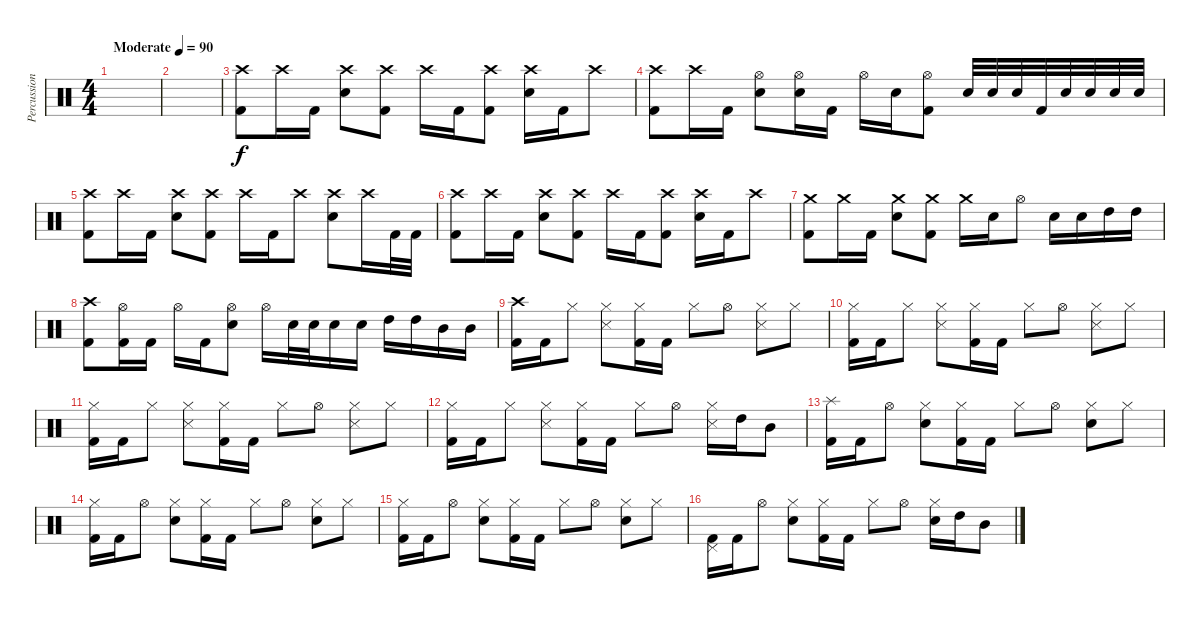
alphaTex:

\track ("Percussion" "Percussion") {instrument percussion}
\staff {score}
\articulation defaults
\ts (4 4)
\tempo (90 "Moderate")
\clef neutral
\ks c
|
|
("Crash high (hit)" "Kick (hit) 2").8 "Crash high (hit)".16 "Kick (hit) 2".16 ("Crash high (hit)" "Snare (hit) 2").8 ("Crash high (hit)" "Kick (hit) 2").8 "Crash high (hit)".16 "Kick (hit) 2".16 ("Crash high (hit)" "Kick (hit) 2").8 ("Crash high (hit)" "Snare (hit) 2").16 "Kick (hit) 2".16 "Crash high (hit)".8 |
("Crash high (hit)" "Kick (hit) 2").8 "Crash high (hit)".16 "Kick (hit) 2".16 ("Hi-Hat (open)" "Snare (hit) 2").8 ("Hi-Hat (open)" "Snare (hit) 2").16 "Kick (hit) 2".16 "Hi-Hat (open)".16 "Snare (hit) 2".16 ("Hi-Hat (open)" "Kick (hit) 2").8 "Snare (hit) 2".32 "Snare (hit) 2".32 "Snare (hit) 2".32 "Kick (hit) 2".32 "Snare (hit) 2".32 "Snare (hit) 2".32 "Snare (hit) 2".32 "Snare (hit) 2".32 |
("Crash high (hit)" "Kick (hit) 2").8 "Crash high (hit)".16 "Kick (hit) 2".16 ("Crash high (hit)" "Snare (hit) 2").8 ("Crash high (hit)" "Kick (hit) 2").8 "Crash high (hit)".16 "Kick (hit) 2".16 "Crash high (hit)".8 ("Crash high (hit)" "Snare (hit) 2").8 "Crash high (hit)".16 "Kick (hit) 2".32 "Kick (hit) 2".32 |
("Crash high (hit)" "Kick (hit) 2").8 "Crash high (hit)".16 "Kick (hit) 2".16 ("Crash high (hit)" "Snare (hit) 2").8 ("Crash high (hit)" "Kick (hit) 2").8 "Crash high (hit)".16 "Kick (hit) 2".16 ("Crash high (hit)" "Kick (hit) 2").8 ("Crash high (hit)" "Snare (hit) 2").16 "Kick (hit) 2".16 "Crash high (hit)".8 |
("Crash medium (hit)" "Kick (hit) 2").8 "Crash medium (hit)".16 "Kick (hit) 2".16 ("Crash medium (hit)" "Snare (hit) 2").8 ("Crash medium (hit)" "Kick (hit) 2").8 "Crash medium (hit)".16 "Snare (hit) 2".16 "Hi-Hat (open)".8 "Snare (hit) 2".16 "Snare (hit) 2".16 "High Tom (hit)".16 "High Tom (hit)".16 |
("Crash high (hit)" "Kick (hit) 2").8 ("Hi-Hat (open)" "Kick (hit) 2").16 "Kick (hit) 2".16 "Hi-Hat (open)".16 "Kick (hit) 2".16 ("Hi-Hat (open)" "Snare (hit) 2").8 "Hi-Hat (open)".16 "Snare (hit) 2".32 "Snare (hit) 2".32 "Snare (hit) 2".16 "Snare (hit) 2".16 "High Tom (hit)".16 "High Tom (hit)".16 "Mid Tom (hit)".16 "Mid Tom (hit)".16 |
("Crash high (hit)" "Kick (hit) 2").16 "Kick (hit) 2".16 "Hi-Hat (closed)".8 ("Hi-Hat (closed)" "Snare (side stick) 3").8 ("Hi-Hat (closed)" "Kick (hit) 2").16 "Kick (hit) 2".16 "Hi-Hat (closed)".8 "Hi-Hat (open)".8 ("Hi-Hat (closed)" "Snare (side stick) 3").8 "Hi-Hat (closed)".8 |
("Hi-Hat (closed)" "Kick (hit) 2").16 "Kick (hit) 2".16 "Hi-Hat (closed)".8 ("Hi-Hat (closed)" "Snare (side stick) 3").8 ("Hi-Hat (closed)" "Kick (hit) 2").16 "Kick (hit) 2".16 "Hi-Hat (closed)".8 "Hi-Hat (open)".8 ("Hi-Hat (closed)" "Snare (side stick) 3").8 "Hi-Hat (closed)".8 |
("Hi-Hat (closed)" "Kick (hit) 2").16 "Kick (hit) 2".16 "Hi-Hat (closed)".8 ("Hi-Hat (closed)" "Snare (side stick) 3").8 ("Hi-Hat (closed)" "Kick (hit) 2").16 "Kick (hit) 2".16 "Hi-Hat (closed)".8 "Hi-Hat (open)".8 ("Hi-Hat (closed)" "Snare (side stick) 3").8 "Hi-Hat (closed)".8 |
("Hi-Hat (closed)" "Kick (hit) 2").16 "Kick (hit) 2".16 "Hi-Hat (closed)".8 ("Hi-Hat (closed)" "Snare (side stick) 3").8 ("Hi-Hat (closed)" "Kick (hit) 2").16 "Kick (hit) 2".16 "Hi-Hat (closed)".8 "Hi-Hat (open)".8 ("Hi-Hat (closed)" "Snare (side stick) 3").16 "High Tom (hit)".16 "Mid Tom (hit)".8 |
("Splash (hit)" "Kick (hit) 2").16 "Kick (hit) 2".16 "Hi-Hat (open)".8 ("Hi-Hat (closed)" "Electric Snare (hit)").8 ("Hi-Hat (closed)" "Kick (hit) 2").16 "Kick (hit) 2".16 "Hi-Hat (closed)".8 "Hi-Hat (open)".8 ("Hi-Hat (closed)" "Electric Snare (hit)").8 "Hi-Hat (closed)".8 |
("Hi-Hat (closed)" "Kick (hit) 2").16 "Kick (hit) 2".16 "Hi-Hat (open)".8 ("Hi-Hat (closed)" "Electric Snare (hit)").8 ("Hi-Hat (closed)" "Kick (hit) 2").16 "Kick (hit) 2".16 "Hi-Hat (closed)".8 "Hi-Hat (open)".8 ("Hi-Hat (closed)" "Electric Snare (hit)").8 "Hi-Hat (closed)".8 |
("Hi-Hat (closed)" "Kick (hit) 2").16 "Kick (hit) 2".16 "Hi-Hat (open)".8 ("Hi-Hat (closed)" "Electric Snare (hit)").8 ("Hi-Hat (closed)" "Kick (hit) 2").16 "Kick (hit) 2".16 "Hi-Hat (closed)".8 "Hi-Hat (open)".8 ("Hi-Hat (closed)" "Electric Snare (hit)").8 "Hi-Hat (closed)".8 |
("Pedal Hi-Hat (hit)" "Kick (hit) 2").16 "Kick (hit) 2".16 "Hi-Hat (open)".8 ("Hi-Hat (closed)" "Electric Snare (hit)").8 ("Hi-Hat (closed)" "Kick (hit) 2").16 "Kick (hit) 2".16 "Hi-Hat (closed)".8 "Hi-Hat (open)".8 ("Hi-Hat (closed)" "Electric Snare (hit)").16 "High Tom (hit)".16 "Mid Tom (hit)".8
